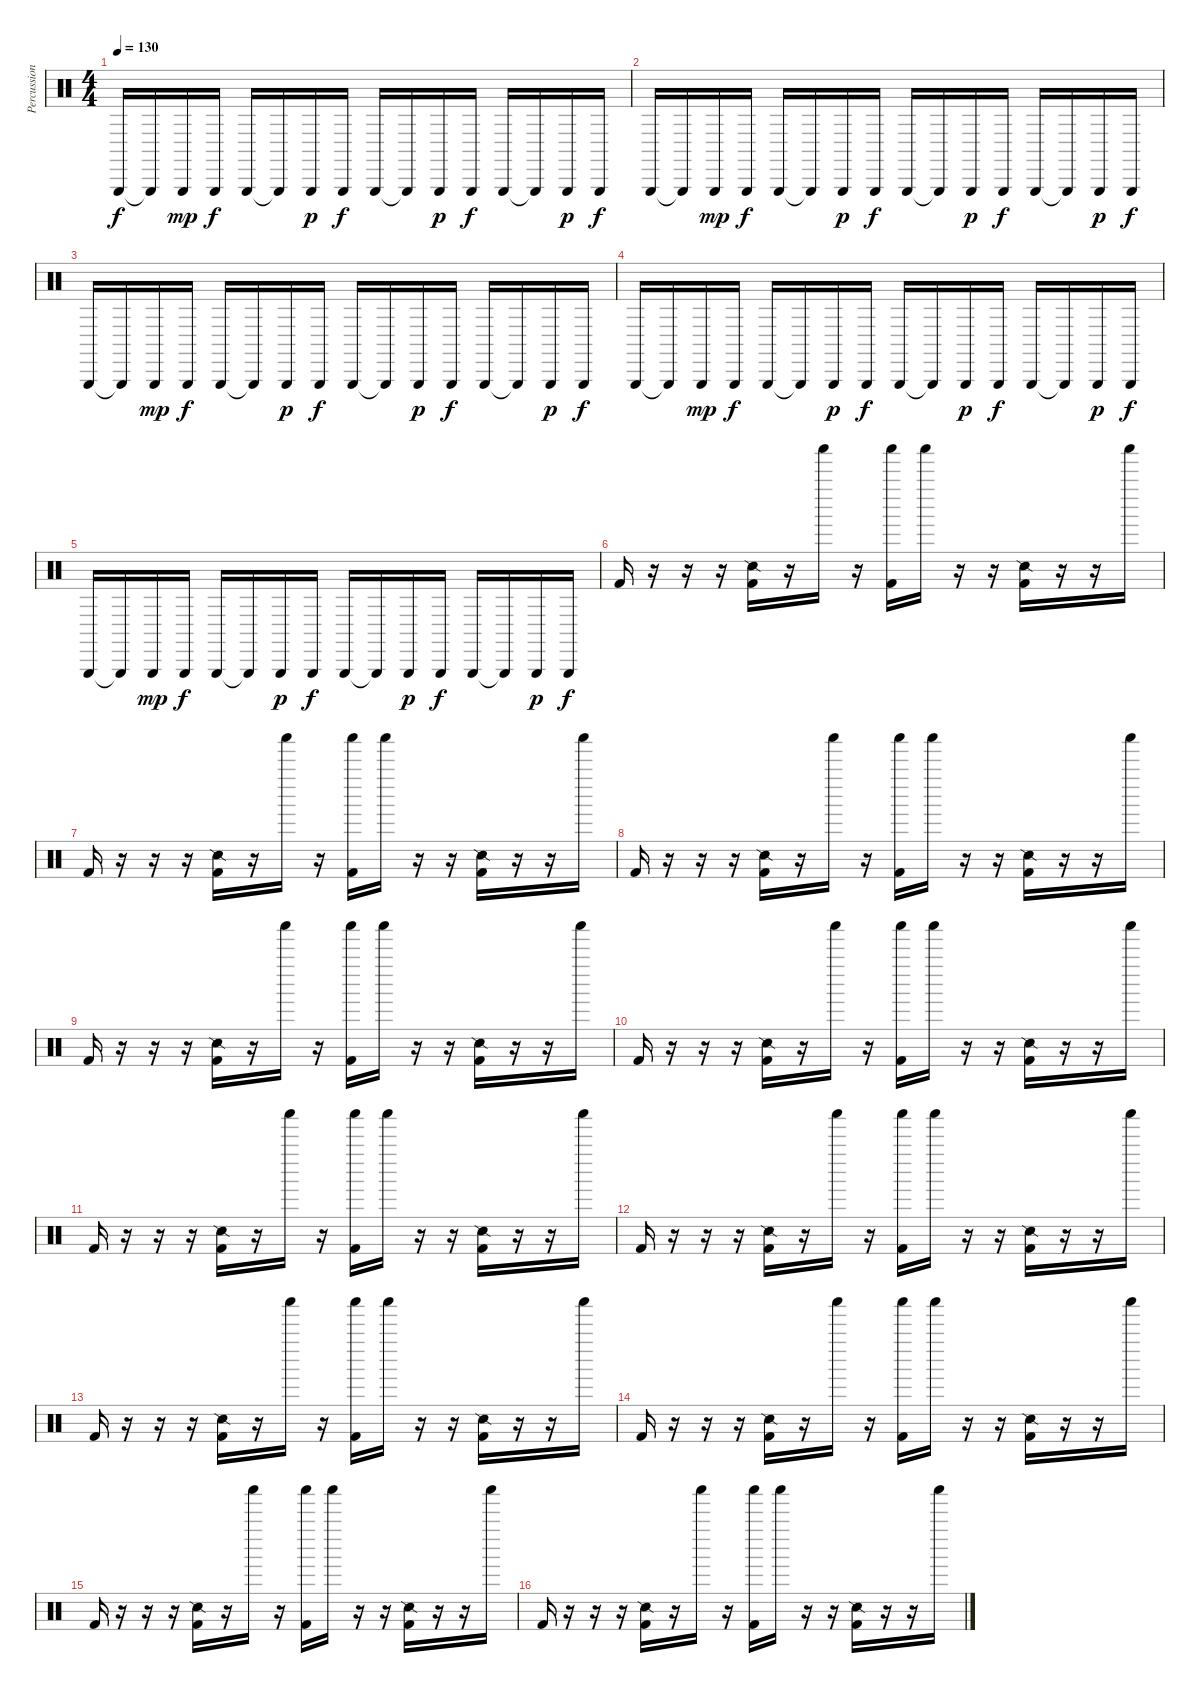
\track ("Percussion" "Percussion") {instrument percussion}
\staff {score}
\articulation defaults
\ts (4 4)
\tempo 130
\clef neutral
\ks c "Triangle (hit)".16{dy f} "Triangle (hit)"{t}.16 "Triangle (hit)".16{dy mp} "Triangle (hit)".16{dy f} "Triangle (hit)".16 "Triangle (hit)"{t}.16 "Triangle (hit)".16{dy p} "Triangle (hit)".16{dy f} "Triangle (hit)".16 "Triangle (hit)"{t}.16 "Triangle (hit)".16{dy p} "Triangle (hit)".16{dy f} "Triangle (hit)".16 "Triangle (hit)"{t}.16 "Triangle (hit)".16{dy p} "Triangle (hit)".16{dy f}
|
"Triangle (hit)".16 "Triangle (hit)"{t}.16 "Triangle (hit)".16{dy mp} "Triangle (hit)".16{dy f} "Triangle (hit)".16 "Triangle (hit)"{t}.16 "Triangle (hit)".16{dy p} "Triangle (hit)".16{dy f} "Triangle (hit)".16 "Triangle (hit)"{t}.16 "Triangle (hit)".16{dy p} "Triangle (hit)".16{dy f} "Triangle (hit)".16 "Triangle (hit)"{t}.16 "Triangle (hit)".16{dy p} "Triangle (hit)".16{dy f} |
"Triangle (hit)".16 "Triangle (hit)"{t}.16 "Triangle (hit)".16{dy mp} "Triangle (hit)".16{dy f} "Triangle (hit)".16 "Triangle (hit)"{t}.16 "Triangle (hit)".16{dy p} "Triangle (hit)".16{dy f} "Triangle (hit)".16 "Triangle (hit)"{t}.16 "Triangle (hit)".16{dy p} "Triangle (hit)".16{dy f} "Triangle (hit)".16 "Triangle (hit)"{t}.16 "Triangle (hit)".16{dy p} "Triangle (hit)".16{dy f} |
"Triangle (hit)".16 "Triangle (hit)"{t}.16 "Triangle (hit)".16{dy mp} "Triangle (hit)".16{dy f} "Triangle (hit)".16 "Triangle (hit)"{t}.16 "Triangle (hit)".16{dy p} "Triangle (hit)".16{dy f} "Triangle (hit)".16 "Triangle (hit)"{t}.16 "Triangle (hit)".16{dy p} "Triangle (hit)".16{dy f} "Triangle (hit)".16 "Triangle (hit)"{t}.16 "Triangle (hit)".16{dy p} "Triangle (hit)".16{dy f} |
"Triangle (hit)".16 "Triangle (hit)"{t}.16 "Triangle (hit)".16{dy mp} "Triangle (hit)".16{dy f} "Triangle (hit)".16 "Triangle (hit)"{t}.16 "Triangle (hit)".16{dy p} "Triangle (hit)".16{dy f} "Triangle (hit)".16 "Triangle (hit)"{t}.16 "Triangle (hit)".16{dy p} "Triangle (hit)".16{dy f} "Triangle (hit)".16 "Triangle (hit)"{t}.16 "Triangle (hit)".16{dy p} "Triangle (hit)".16{dy f} |
"Kick (hit) 2".16 r.16 r.16 r.16 ("Kick (hit) 2" "Snare (side stick) 2").16 r.16 "Shaker (hit)".16 r.16 ("Kick (hit) 2" "Shaker (hit)").16 "Shaker (hit)".16 r.16 r.16 ("Kick (hit) 2" "Snare (side stick) 2").16 r.16 r.16 "Shaker (hit)".16 |
"Kick (hit) 2".16 r.16 r.16 r.16 ("Kick (hit) 2" "Snare (side stick) 2").16 r.16 "Shaker (hit)".16 r.16 ("Kick (hit) 2" "Shaker (hit)").16 "Shaker (hit)".16 r.16 r.16 ("Kick (hit) 2" "Snare (side stick) 2").16 r.16 r.16 "Shaker (hit)".16 |
"Kick (hit) 2".16 r.16 r.16 r.16 ("Kick (hit) 2" "Snare (side stick) 2").16 r.16 "Shaker (hit)".16 r.16 ("Kick (hit) 2" "Shaker (hit)").16 "Shaker (hit)".16 r.16 r.16 ("Kick (hit) 2" "Snare (side stick) 2").16 r.16 r.16 "Shaker (hit)".16 |
"Kick (hit) 2".16 r.16 r.16 r.16 ("Kick (hit) 2" "Snare (side stick) 2").16 r.16 "Shaker (hit)".16 r.16 ("Kick (hit) 2" "Shaker (hit)").16 "Shaker (hit)".16 r.16 r.16 ("Kick (hit) 2" "Snare (side stick) 2").16 r.16 r.16 "Shaker (hit)".16 |
"Kick (hit) 2".16 r.16 r.16 r.16 ("Kick (hit) 2" "Snare (side stick) 2").16 r.16 "Shaker (hit)".16 r.16 ("Kick (hit) 2" "Shaker (hit)").16 "Shaker (hit)".16 r.16 r.16 ("Kick (hit) 2" "Snare (side stick) 2").16 r.16 r.16 "Shaker (hit)".16 |
"Kick (hit) 2".16 r.16 r.16 r.16 ("Kick (hit) 2" "Snare (side stick) 2").16 r.16 "Shaker (hit)".16 r.16 ("Kick (hit) 2" "Shaker (hit)").16 "Shaker (hit)".16 r.16 r.16 ("Kick (hit) 2" "Snare (side stick) 2").16 r.16 r.16 "Shaker (hit)".16 |
"Kick (hit) 2".16 r.16 r.16 r.16 ("Kick (hit) 2" "Snare (side stick) 2").16 r.16 "Shaker (hit)".16 r.16 ("Kick (hit) 2" "Shaker (hit)").16 "Shaker (hit)".16 r.16 r.16 ("Kick (hit) 2" "Snare (side stick) 2").16 r.16 r.16 "Shaker (hit)".16 |
"Kick (hit) 2".16 r.16 r.16 r.16 ("Kick (hit) 2" "Snare (side stick) 2").16 r.16 "Shaker (hit)".16 r.16 ("Kick (hit) 2" "Shaker (hit)").16 "Shaker (hit)".16 r.16 r.16 ("Kick (hit) 2" "Snare (side stick) 2").16 r.16 r.16 "Shaker (hit)".16 |
"Kick (hit) 2".16 r.16 r.16 r.16 ("Kick (hit) 2" "Snare (side stick) 2").16 r.16 "Shaker (hit)".16 r.16 ("Kick (hit) 2" "Shaker (hit)").16 "Shaker (hit)".16 r.16 r.16 ("Kick (hit) 2" "Snare (side stick) 2").16 r.16 r.16 "Shaker (hit)".16 |
"Kick (hit) 2".16 r.16 r.16 r.16 ("Kick (hit) 2" "Snare (side stick) 2").16 r.16 "Shaker (hit)".16 r.16 ("Kick (hit) 2" "Shaker (hit)").16 "Shaker (hit)".16 r.16 r.16 ("Kick (hit) 2" "Snare (side stick) 2").16 r.16 r.16 "Shaker (hit)".16 |
"Kick (hit) 2".16 r.16 r.16 r.16 ("Kick (hit) 2" "Snare (side stick) 2").16 r.16 "Shaker (hit)".16 r.16 ("Kick (hit) 2" "Shaker (hit)").16 "Shaker (hit)".16 r.16 r.16 ("Kick (hit) 2" "Snare (side stick) 2").16 r.16 r.16 "Shaker (hit)".16
